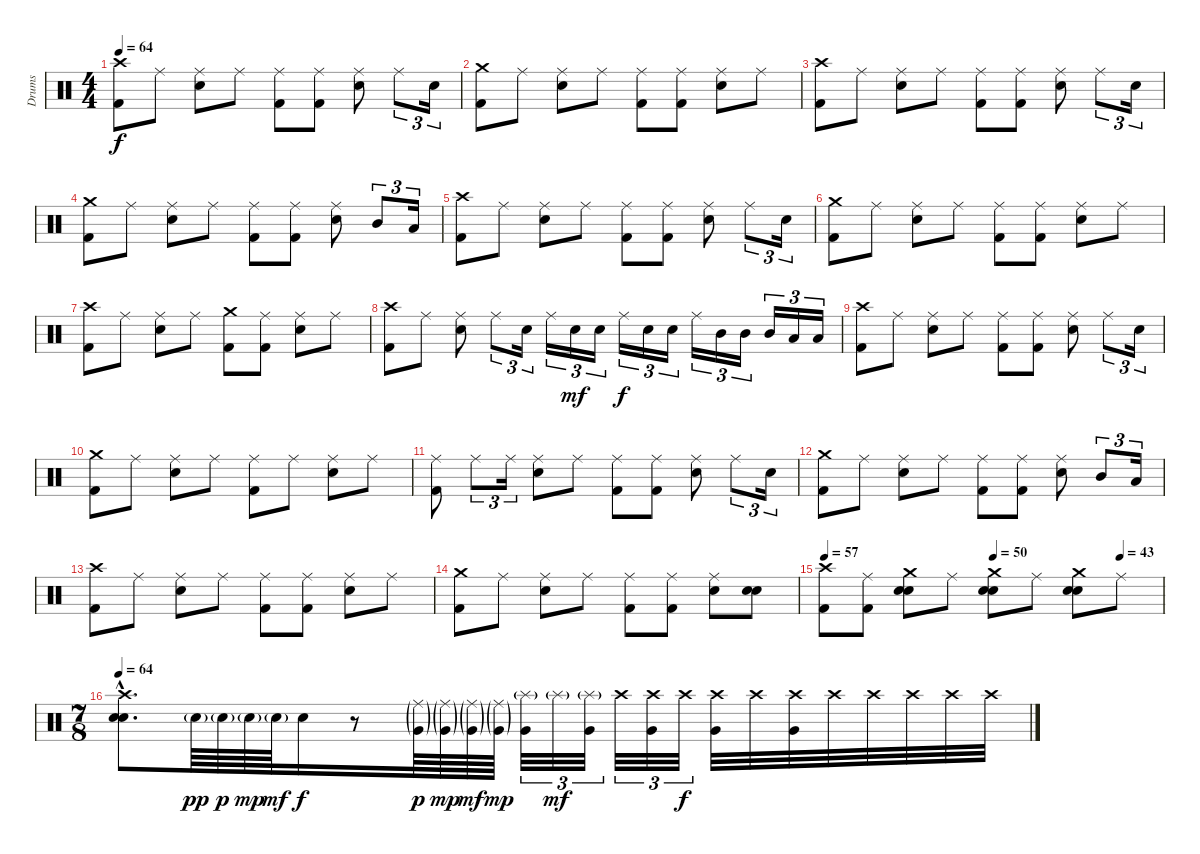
\track ("Drums" "Drums") {instrument percussion}
\staff {score}
\articulation defaults
\ts (4 4)
\tempo 64
\clef neutral
\ks c
("Crash high (hit)" "Kick (hit) 2").8{dy f} "Ride (middle)".8 ("Ride (middle)" "Electric Snare (hit)").8 "Ride (middle)".8 ("Ride (middle)" "Kick (hit) 2").8 ("Ride (middle)" "Kick (hit) 2").8 ("Ride (middle)" "Electric Snare (hit)").8 "Ride (middle)".8{tu (3 2)} "Electric Snare (hit)".16{tu (3 2)} |
("Crash medium (hit)" "Kick (hit) 2").8 "Ride (middle)".8 ("Ride (middle)" "Electric Snare (hit)").8 "Ride (middle)".8 ("Ride (middle)" "Kick (hit) 2").8 ("Ride (middle)" "Kick (hit) 2").8 ("Ride (middle)" "Electric Snare (hit)").8 "Ride (middle)".8 |
("Crash high (hit)" "Kick (hit) 2").8 "Ride (middle)".8 ("Ride (middle)" "Electric Snare (hit)").8 "Ride (middle)".8 ("Ride (middle)" "Kick (hit) 2").8 ("Ride (middle)" "Kick (hit) 2").8 ("Ride (middle)" "Electric Snare (hit)").8 "Ride (middle)".8{tu (3 2)} "Electric Snare (hit)".16{tu (3 2)} |
("Crash medium (hit)" "Kick (hit) 2").8 "Ride (middle)".8 ("Ride (middle)" "Electric Snare (hit)").8 "Ride (middle)".8 ("Ride (middle)" "Kick (hit) 2").8 ("Ride (middle)" "Kick (hit) 2").8 ("Ride (middle)" "Electric Snare (hit)").8 "Mid Tom (hit)".8{tu (3 2)} "Low Tom (hit)".16{tu (3 2)} |
("Crash high (hit)" "Kick (hit) 2").8 "Ride (middle)".8 ("Ride (middle)" "Electric Snare (hit)").8 "Ride (middle)".8 ("Ride (middle)" "Kick (hit) 2").8 ("Ride (middle)" "Kick (hit) 2").8 ("Ride (middle)" "Electric Snare (hit)").8 "Ride (middle)".8{tu (3 2)} "Electric Snare (hit)".16{tu (3 2)} |
("Crash medium (hit)" "Kick (hit) 2").8 "Ride (middle)".8 ("Ride (middle)" "Electric Snare (hit)").8 "Ride (middle)".8 ("Ride (middle)" "Kick (hit) 2").8 ("Ride (middle)" "Kick (hit) 2").8 ("Ride (middle)" "Electric Snare (hit)").8 "Ride (middle)".8 |
("Crash high (hit)" "Kick (hit) 2").8 "Ride (middle)".8 ("Ride (middle)" "Electric Snare (hit)").8 "Ride (middle)".8 ("Crash medium (hit)" "Kick (hit) 2").8 ("Ride (middle)" "Kick (hit) 2").8 ("Ride (middle)" "Electric Snare (hit)").8 "Ride (middle)".8 |
("Crash high (hit)" "Kick (hit) 2").8 "Ride (middle)".8 ("Ride (middle)" "Electric Snare (hit)").8 "Ride (middle)".8{tu (3 2)} "Electric Snare (hit)".16{tu (3 2)} "Ride (middle)".16{tu (3 2)} "Electric Snare (hit)".16{tu (3 2) dy mf} "Electric Snare (hit)".16{tu (3 2)} "Ride (middle)".16{tu (3 2) dy f} "Electric Snare (hit)".16{tu (3 2)} "Electric Snare (hit)".16{tu (3 2)} "Ride (middle)".16{tu (3 2)} "Mid Tom (hit)".16{tu (3 2)} "Mid Tom (hit)".16{tu (3 2)} "Mid Tom (hit)".16{tu (3 2)} "Low Tom (hit)".16{tu (3 2)} "Low Tom (hit)".16{tu (3 2)} |
("Crash high (hit)" "Kick (hit) 2").8 "Ride (middle)".8 ("Ride (middle)" "Electric Snare (hit)").8 "Ride (middle)".8 ("Ride (middle)" "Kick (hit) 2").8 ("Ride (middle)" "Kick (hit) 2").8 ("Ride (middle)" "Electric Snare (hit)").8 "Ride (middle)".8{tu (3 2)} "Electric Snare (hit)".16{tu (3 2)} |
("Crash medium (hit)" "Kick (hit) 2").8 "Ride (middle)".8 ("Ride (middle)" "Electric Snare (hit)").8 "Ride (middle)".8 ("Ride (middle)" "Kick (hit) 2").8 "Ride (middle)".8 ("Ride (middle)" "Electric Snare (hit)").8 "Ride (middle)".8 |
("Ride (middle)" "Kick (hit) 2").8 "Ride (middle)".8{tu (3 2)} "Ride (middle)".16{tu (3 2)} ("Ride (middle)" "Electric Snare (hit)").8 "Ride (middle)".8 ("Ride (middle)" "Kick (hit) 2").8 ("Ride (middle)" "Kick (hit) 2").8 ("Ride (middle)" "Electric Snare (hit)").8 "Ride (middle)".8{tu (3 2)} "Electric Snare (hit)".16{tu (3 2)} |
("Crash medium (hit)" "Kick (hit) 2").8 "Ride (middle)".8 ("Ride (middle)" "Electric Snare (hit)").8 "Ride (middle)".8 ("Ride (middle)" "Kick (hit) 2").8 ("Ride (middle)" "Kick (hit) 2").8 ("Ride (middle)" "Electric Snare (hit)").8 "Mid Tom (hit)".8{tu (3 2)} "Low Tom (hit)".16{tu (3 2)} |
("Crash high (hit)" "Kick (hit) 2").8 "Ride (middle)".8 ("Ride (middle)" "Electric Snare (hit)").8 "Ride (middle)".8 ("Ride (middle)" "Kick (hit) 2").8 ("Ride (middle)" "Kick (hit) 2").8 ("Ride (middle)" "Electric Snare (hit)").8 "Ride (middle)".8 |
("Crash medium (hit)" "Kick (hit) 2").8 "Ride (middle)".8 ("Ride (middle)" "Electric Snare (hit)").8 "Ride (middle)".8 ("Ride (middle)" "Kick (hit) 2").8 ("Ride (middle)" "Kick (hit) 2").8 ("Ride (middle)" "Electric Snare (hit)").8 ("Electric Snare (hit)" "Snare (hit) 2").8 |
\tempo 57
\tempo (50 0.5)
\tempo (43 0.875)
("Crash high (hit)" "Kick (hit) 2").8 ("Ride (middle)" "Kick (hit) 2").8 ("Crash medium (hit)" "Snare (hit) 2" "Electric Snare (hit)").8 "Ride (middle)".8 ("Crash medium (hit)" "Snare (hit) 2" "Electric Snare (hit)").8 "Ride (middle)".8 ("Crash medium (hit)" "Snare (hit) 2" "Electric Snare (hit)").8 "Ride (middle)".8 |
\ts (7 8)
\tempo 64
("Crash high (hit)"{hac} "Snare (hit) 2"{hac} "Electric Snare (hit)"{hac}).8{d} "Electric Snare (hit)"{g}.64{dy pp} "Electric Snare (hit)"{g}.64{dy p} "Electric Snare (hit)"{g}.64{dy mp} "Electric Snare (hit)"{g}.64{dy mf} "Electric Snare (hit)".16{dy f} r.8 ("Ride (middle)"{g} "Very Low Tom (hit)"{g}).64{dy p} ("Ride (middle)"{g} "Very Low Tom (hit)"{g}).64{dy mp} ("Ride (middle)"{g} "Very Low Tom (hit)"{g}).64{dy mf} ("Ride (middle)"{g} "Very Low Tom (hit)"{g}).64{dy mp} ("Splash (hit)"{g} "Very Low Tom (hit)").32{tu (3 2)} "Splash (hit)"{g}.32{tu (3 2) dy mf} ("Splash (hit)"{g} "Very Low Tom (hit)").32{tu (3 2)} "Crash high (hit)".32{tu (3 2)} ("Crash high (hit)" "Very Low Tom (hit)").32{tu (3 2)} "Crash high (hit)".32{tu (3 2) dy f} ("Crash high (hit)" "Very Low Tom (hit)").32 "Crash high (hit)".32 ("Crash high (hit)" "Very Low Tom (hit)").32 "Crash high (hit)".32 "Crash high (hit)".32 "Crash high (hit)".32 "Crash high (hit)".32 "Crash high (hit)".32
